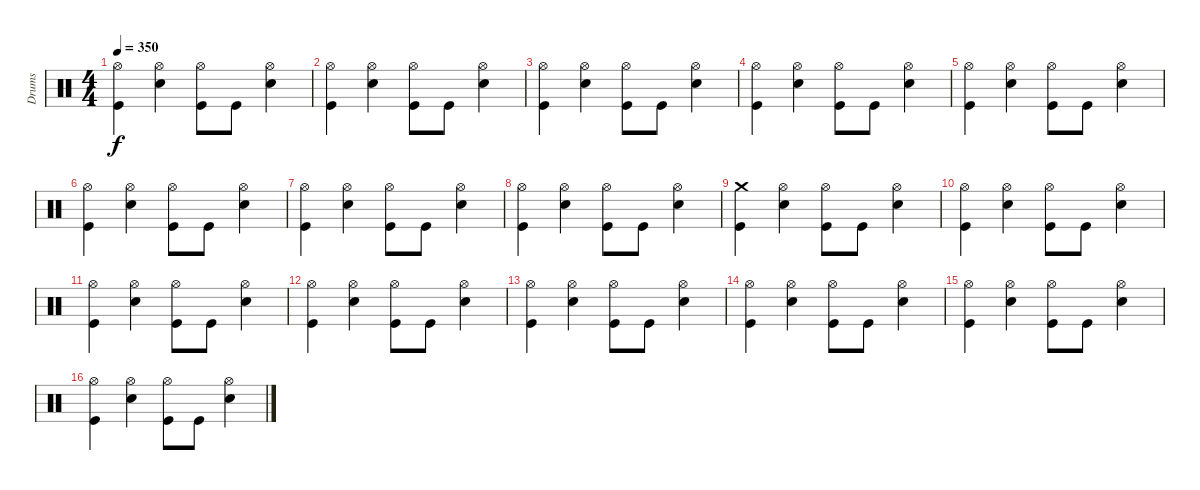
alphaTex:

\track ("Drums" "Drums") {instrument percussion}
\staff {score}
\articulation defaults
\ts (4 4)
\tempo 350
\clef neutral
\ks c
("Hi-Hat (open)" "Kick (hit)").4{dy f} ("Hi-Hat (open)" "Snare (hit) 2").4 ("Hi-Hat (open)" "Kick (hit)").8 "Kick (hit)".8 ("Hi-Hat (open)" "Snare (hit) 2").4 |
("Hi-Hat (open)" "Kick (hit)").4 ("Hi-Hat (open)" "Snare (hit) 2").4 ("Hi-Hat (open)" "Kick (hit)").8 "Kick (hit)".8 ("Hi-Hat (open)" "Snare (hit) 2").4 |
("Hi-Hat (open)" "Kick (hit)").4 ("Hi-Hat (open)" "Snare (hit) 2").4 ("Hi-Hat (open)" "Kick (hit)").8 "Kick (hit)".8 ("Hi-Hat (open)" "Snare (hit) 2").4 |
("Hi-Hat (open)" "Kick (hit)").4 ("Hi-Hat (open)" "Snare (hit) 2").4 ("Hi-Hat (open)" "Kick (hit)").8 "Kick (hit)".8 ("Hi-Hat (open)" "Snare (hit) 2").4 |
("Hi-Hat (open)" "Kick (hit)").4 ("Hi-Hat (open)" "Snare (hit) 2").4 ("Hi-Hat (open)" "Kick (hit)").8 "Kick (hit)".8 ("Hi-Hat (open)" "Snare (hit) 2").4 |
("Hi-Hat (open)" "Kick (hit)").4 ("Hi-Hat (open)" "Snare (hit) 2").4 ("Hi-Hat (open)" "Kick (hit)").8 "Kick (hit)".8 ("Hi-Hat (open)" "Snare (hit) 2").4 |
("Hi-Hat (open)" "Kick (hit)").4 ("Hi-Hat (open)" "Snare (hit) 2").4 ("Hi-Hat (open)" "Kick (hit)").8 "Kick (hit)".8 ("Hi-Hat (open)" "Snare (hit) 2").4 |
("Hi-Hat (open)" "Kick (hit)").4 ("Hi-Hat (open)" "Snare (hit) 2").4 ("Hi-Hat (open)" "Kick (hit)").8 "Kick (hit)".8 ("Hi-Hat (open)" "Snare (hit) 2").4 |
("Crash medium (hit)" "Kick (hit)").4 ("Hi-Hat (open)" "Snare (hit) 2").4 ("Hi-Hat (open)" "Kick (hit)").8 "Kick (hit)".8 ("Hi-Hat (open)" "Snare (hit) 2").4 |
("Hi-Hat (open)" "Kick (hit)").4 ("Hi-Hat (open)" "Snare (hit) 2").4 ("Hi-Hat (open)" "Kick (hit)").8 "Kick (hit)".8 ("Hi-Hat (open)" "Snare (hit) 2").4 |
("Hi-Hat (open)" "Kick (hit)").4 ("Hi-Hat (open)" "Snare (hit) 2").4 ("Hi-Hat (open)" "Kick (hit)").8 "Kick (hit)".8 ("Hi-Hat (open)" "Snare (hit) 2").4 |
("Hi-Hat (open)" "Kick (hit)").4 ("Hi-Hat (open)" "Snare (hit) 2").4 ("Hi-Hat (open)" "Kick (hit)").8 "Kick (hit)".8 ("Hi-Hat (open)" "Snare (hit) 2").4 |
("Hi-Hat (open)" "Kick (hit)").4 ("Hi-Hat (open)" "Snare (hit) 2").4 ("Hi-Hat (open)" "Kick (hit)").8 "Kick (hit)".8 ("Hi-Hat (open)" "Snare (hit) 2").4 |
("Hi-Hat (open)" "Kick (hit)").4 ("Hi-Hat (open)" "Snare (hit) 2").4 ("Hi-Hat (open)" "Kick (hit)").8 "Kick (hit)".8 ("Hi-Hat (open)" "Snare (hit) 2").4 |
("Hi-Hat (open)" "Kick (hit)").4 ("Hi-Hat (open)" "Snare (hit) 2").4 ("Hi-Hat (open)" "Kick (hit)").8 "Kick (hit)".8 ("Hi-Hat (open)" "Snare (hit) 2").4 |
("Hi-Hat (open)" "Kick (hit)").4 ("Hi-Hat (open)" "Snare (hit) 2").4 ("Hi-Hat (open)" "Kick (hit)").8 "Kick (hit)".8 ("Hi-Hat (open)" "Snare (hit) 2").4
